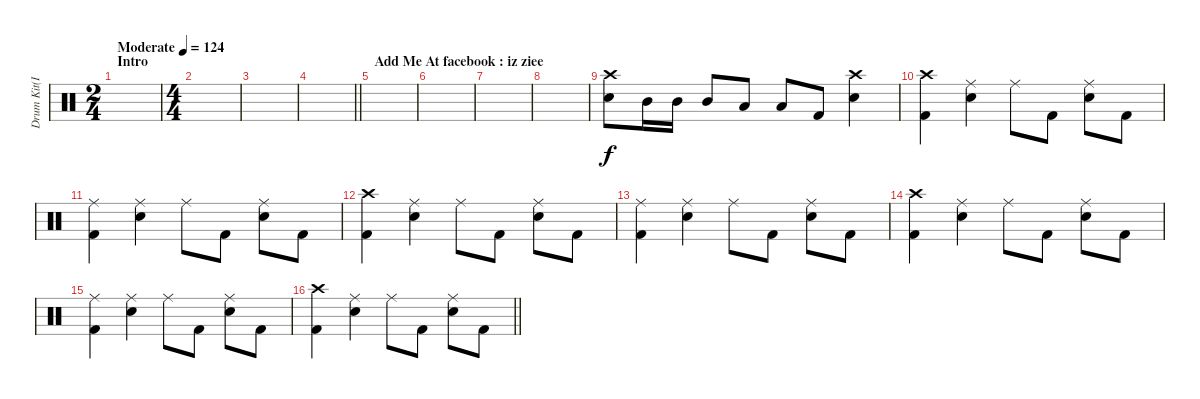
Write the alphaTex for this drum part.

\track ("Drum Kit(Inu)" "Drum Kit(I") {instrument percussion}
\staff {score}
\articulation defaults
\ts (2 4)
\section ("" "Intro")
\tempo (124 "Moderate")
\clef neutral
\ks c
|
\ts (4 4)
|
|
\barLineRight lightlight
|
\section ("" "Add Me At facebook : iz ziee")
|
|
|
|
("Electric Snare (hit)" "Crash high (hit)").8 "Mid Tom (hit)".16 "Mid Tom (hit)".16 "Mid Tom (hit)".8 "Low Tom (hit)".8 "Low Tom (hit)".8 "Kick (hit) 2".8 ("Crash high (hit)" "Electric Snare (hit)").4 |
("Kick (hit) 2" "Crash high (hit)").4 ("Ride (middle)" "Electric Snare (hit)").4 "Ride (middle)".8 "Kick (hit) 2".8 ("Ride (middle)" "Electric Snare (hit)").8 "Kick (hit) 2".8 |
("Ride (middle)" "Kick (hit) 2").4 ("Electric Snare (hit)" "Ride (middle)").4 "Ride (middle)".8 "Kick (hit) 2".8 ("Electric Snare (hit)" "Ride (middle)").8 "Kick (hit) 2".8 |
("Crash high (hit)" "Kick (hit) 2").4 ("Electric Snare (hit)" "Ride (middle)").4 "Ride (middle)".8 "Kick (hit) 2".8 ("Electric Snare (hit)" "Ride (middle)").8 "Kick (hit) 2".8 |
("Ride (middle)" "Kick (hit) 2").4 ("Electric Snare (hit)" "Ride (middle)").4 "Ride (middle)".8 "Kick (hit) 2".8 ("Electric Snare (hit)" "Ride (middle)").8 "Kick (hit) 2".8 |
("Crash high (hit)" "Kick (hit) 2").4 ("Electric Snare (hit)" "Ride (middle)").4 "Ride (middle)".8 "Kick (hit) 2".8 ("Electric Snare (hit)" "Ride (middle)").8 "Kick (hit) 2".8 |
("Ride (middle)" "Kick (hit) 2").4 ("Electric Snare (hit)" "Ride (middle)").4 "Ride (middle)".8 "Kick (hit) 2".8 ("Electric Snare (hit)" "Ride (middle)").8 "Kick (hit) 2".8 |
\barLineRight lightlight
("Crash high (hit)" "Kick (hit) 2").4 ("Electric Snare (hit)" "Ride (middle)").4 "Ride (middle)".8 "Kick (hit) 2".8 ("Electric Snare (hit)" "Ride (middle)").8 "Kick (hit) 2".8
